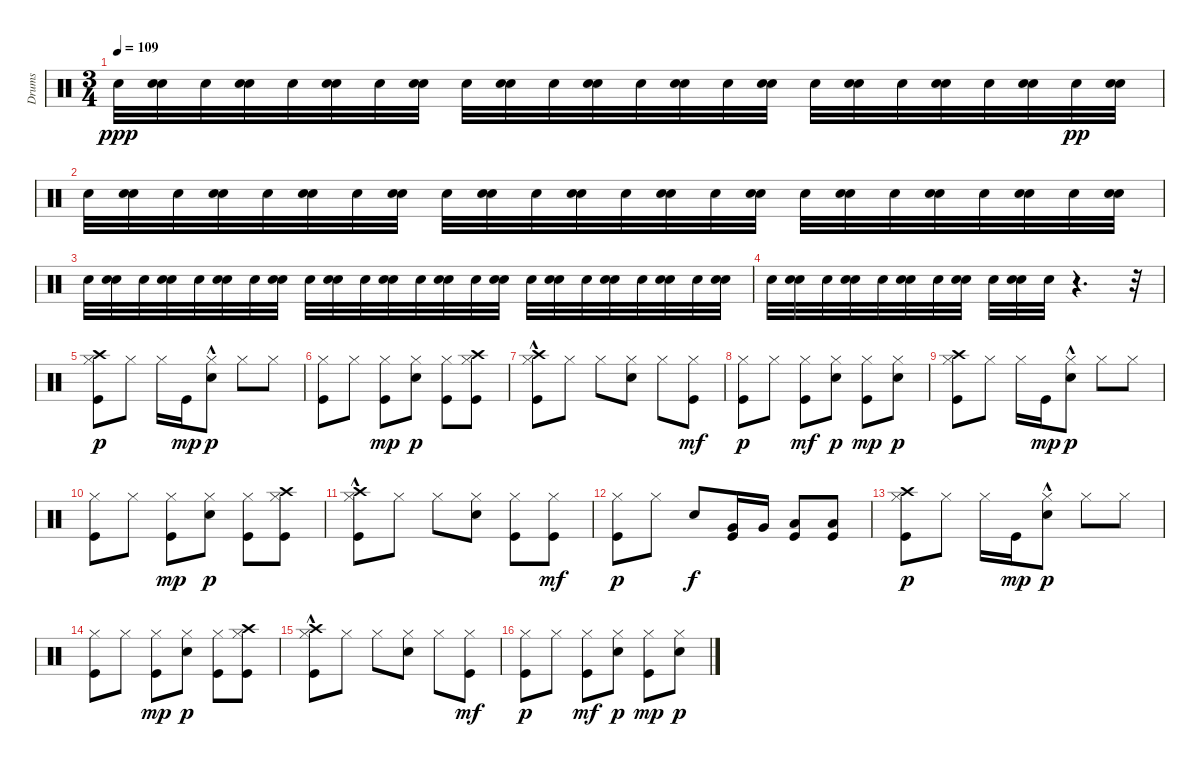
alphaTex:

\track ("Drums" "Drums") {instrument percussion}
\staff {score}
\articulation defaults
\ts (3 4)
\tempo 109
\clef neutral
\ks c "Snare (hit) 2".32{dy ppp}
("Snare (hit) 2" "Snare (hit) 2").32 "Snare (hit) 2".32 ("Snare (hit) 2" "Snare (hit) 2").32 "Snare (hit) 2".32 ("Snare (hit) 2" "Snare (hit) 2").32 "Snare (hit) 2".32 ("Snare (hit) 2" "Snare (hit) 2").32 "Snare (hit) 2".32 ("Snare (hit) 2" "Snare (hit) 2").32 "Snare (hit) 2".32 ("Snare (hit) 2" "Snare (hit) 2").32 "Snare (hit) 2".32 ("Snare (hit) 2" "Snare (hit) 2").32 "Snare (hit) 2".32 ("Snare (hit) 2" "Snare (hit) 2").32 "Snare (hit) 2".32 ("Snare (hit) 2" "Snare (hit) 2").32 "Snare (hit) 2".32 ("Snare (hit) 2" "Snare (hit) 2").32 "Snare (hit) 2".32 ("Snare (hit) 2" "Snare (hit) 2").32 "Snare (hit) 2".32{dy pp} ("Snare (hit) 2" "Snare (hit) 2").32 |
"Snare (hit) 2".32 ("Snare (hit) 2" "Snare (hit) 2").32 "Snare (hit) 2".32 ("Snare (hit) 2" "Snare (hit) 2").32 "Snare (hit) 2".32 ("Snare (hit) 2" "Snare (hit) 2").32 "Snare (hit) 2".32 ("Snare (hit) 2" "Snare (hit) 2").32 "Snare (hit) 2".32 ("Snare (hit) 2" "Snare (hit) 2").32 "Snare (hit) 2".32 ("Snare (hit) 2" "Snare (hit) 2").32 "Snare (hit) 2".32 ("Snare (hit) 2" "Snare (hit) 2").32 "Snare (hit) 2".32 ("Snare (hit) 2" "Snare (hit) 2").32 "Snare (hit) 2".32 ("Snare (hit) 2" "Snare (hit) 2").32 "Snare (hit) 2".32 ("Snare (hit) 2" "Snare (hit) 2").32 "Snare (hit) 2".32 ("Snare (hit) 2" "Snare (hit) 2").32 "Snare (hit) 2".32 ("Snare (hit) 2" "Snare (hit) 2").32 |
"Snare (hit) 2".32 ("Snare (hit) 2" "Snare (hit) 2").32 "Snare (hit) 2".32 ("Snare (hit) 2" "Snare (hit) 2").32 "Snare (hit) 2".32 ("Snare (hit) 2" "Snare (hit) 2").32 "Snare (hit) 2".32 ("Snare (hit) 2" "Snare (hit) 2").32 "Snare (hit) 2".32 ("Snare (hit) 2" "Snare (hit) 2").32 "Snare (hit) 2".32 ("Snare (hit) 2" "Snare (hit) 2").32 "Snare (hit) 2".32 ("Snare (hit) 2" "Snare (hit) 2").32 "Snare (hit) 2".32 ("Snare (hit) 2" "Snare (hit) 2").32 "Snare (hit) 2".32 ("Snare (hit) 2" "Snare (hit) 2").32 "Snare (hit) 2".32 ("Snare (hit) 2" "Snare (hit) 2").32 "Snare (hit) 2".32 ("Snare (hit) 2" "Snare (hit) 2").32 "Snare (hit) 2".32 ("Snare (hit) 2" "Snare (hit) 2").32 |
"Snare (hit) 2".32 ("Snare (hit) 2" "Snare (hit) 2").32 "Snare (hit) 2".32 ("Snare (hit) 2" "Snare (hit) 2").32 "Snare (hit) 2".32 ("Snare (hit) 2" "Snare (hit) 2").32 "Snare (hit) 2".32 ("Snare (hit) 2" "Snare (hit) 2").32 "Snare (hit) 2".32 ("Snare (hit) 2" "Snare (hit) 2").32 "Snare (hit) 2".32 r.4{d} r.32 |
("Crash high (hit)" "Hi-Hat (closed)" "Kick (hit)").8{dy p} "Hi-Hat (closed)".8 "Hi-Hat (closed)".16 "Kick (hit)".16{dy mp} ("Hi-Hat (closed)" "Electric Snare (hit)"{hac}).8{dy p} "Hi-Hat (closed)".8 "Hi-Hat (closed)".8 |
("Hi-Hat (closed)" "Kick (hit)").8 "Hi-Hat (closed)".8 ("Hi-Hat (closed)" "Kick (hit)").8{dy mp} ("Hi-Hat (closed)" "Electric Snare (hit)").8{dy p} ("Hi-Hat (closed)" "Kick (hit)").8 ("Crash high (hit)" "Hi-Hat (closed)" "Kick (hit)").8 |
("Crash high (hit)" "Hi-Hat (closed)" "Kick (hit)"{hac}).8 "Hi-Hat (closed)".8 "Hi-Hat (closed)".8 ("Hi-Hat (closed)" "Electric Snare (hit)").8 "Hi-Hat (closed)".8 ("Hi-Hat (closed)" "Kick (hit)").8{dy mf} |
("Hi-Hat (closed)" "Kick (hit)").8{dy p} "Hi-Hat (closed)".8 ("Hi-Hat (closed)" "Kick (hit)").8{dy mf} ("Hi-Hat (closed)" "Electric Snare (hit)").8{dy p} ("Hi-Hat (closed)" "Kick (hit)").8{dy mp} ("Hi-Hat (closed)" "Electric Snare (hit)").8{dy p} |
("Crash high (hit)" "Hi-Hat (closed)" "Kick (hit)").8 "Hi-Hat (closed)".8 "Hi-Hat (closed)".16 "Kick (hit)".16{dy mp} ("Hi-Hat (closed)" "Electric Snare (hit)"{hac}).8{dy p} "Hi-Hat (closed)".8 "Hi-Hat (closed)".8 |
("Hi-Hat (closed)" "Kick (hit)").8 "Hi-Hat (closed)".8 ("Hi-Hat (closed)" "Kick (hit)").8{dy mp} ("Hi-Hat (closed)" "Electric Snare (hit)").8{dy p} ("Hi-Hat (closed)" "Kick (hit)").8 ("Crash high (hit)" "Hi-Hat (closed)" "Kick (hit)").8 |
("Crash high (hit)" "Hi-Hat (closed)" "Kick (hit)"{hac}).8 "Hi-Hat (closed)".8 "Hi-Hat (closed)".8 ("Hi-Hat (closed)" "Electric Snare (hit)").8 ("Hi-Hat (closed)" "Kick (hit)").8 ("Hi-Hat (closed)" "Kick (hit)").8{dy mf} |
("Hi-Hat (closed)" "Kick (hit)").8{dy p} "Hi-Hat (closed)".8 "Electric Snare (hit)".8{dy f} ("Kick (hit)" "Very Low Tom (hit)").16 "Very Low Tom (hit)".16 ("Kick (hit)" "Low Floor Tom (hit)").8 ("Kick (hit)" "Low Floor Tom (hit)").8 |
("Crash high (hit)" "Hi-Hat (closed)" "Kick (hit)").8{dy p} "Hi-Hat (closed)".8 "Hi-Hat (closed)".16 "Kick (hit)".16{dy mp} ("Hi-Hat (closed)" "Electric Snare (hit)"{hac}).8{dy p} "Hi-Hat (closed)".8 "Hi-Hat (closed)".8 |
("Hi-Hat (closed)" "Kick (hit)").8 "Hi-Hat (closed)".8 ("Hi-Hat (closed)" "Kick (hit)").8{dy mp} ("Hi-Hat (closed)" "Electric Snare (hit)").8{dy p} ("Hi-Hat (closed)" "Kick (hit)").8 ("Crash high (hit)" "Hi-Hat (closed)" "Kick (hit)").8 |
("Crash high (hit)" "Hi-Hat (closed)" "Kick (hit)"{hac}).8 "Hi-Hat (closed)".8 "Hi-Hat (closed)".8 ("Hi-Hat (closed)" "Electric Snare (hit)").8 "Hi-Hat (closed)".8 ("Hi-Hat (closed)" "Kick (hit)").8{dy mf} |
("Hi-Hat (closed)" "Kick (hit)").8{dy p} "Hi-Hat (closed)".8 ("Hi-Hat (closed)" "Kick (hit)").8{dy mf} ("Hi-Hat (closed)" "Electric Snare (hit)").8{dy p} ("Hi-Hat (closed)" "Kick (hit)").8{dy mp} ("Hi-Hat (closed)" "Electric Snare (hit)").8{dy p}
